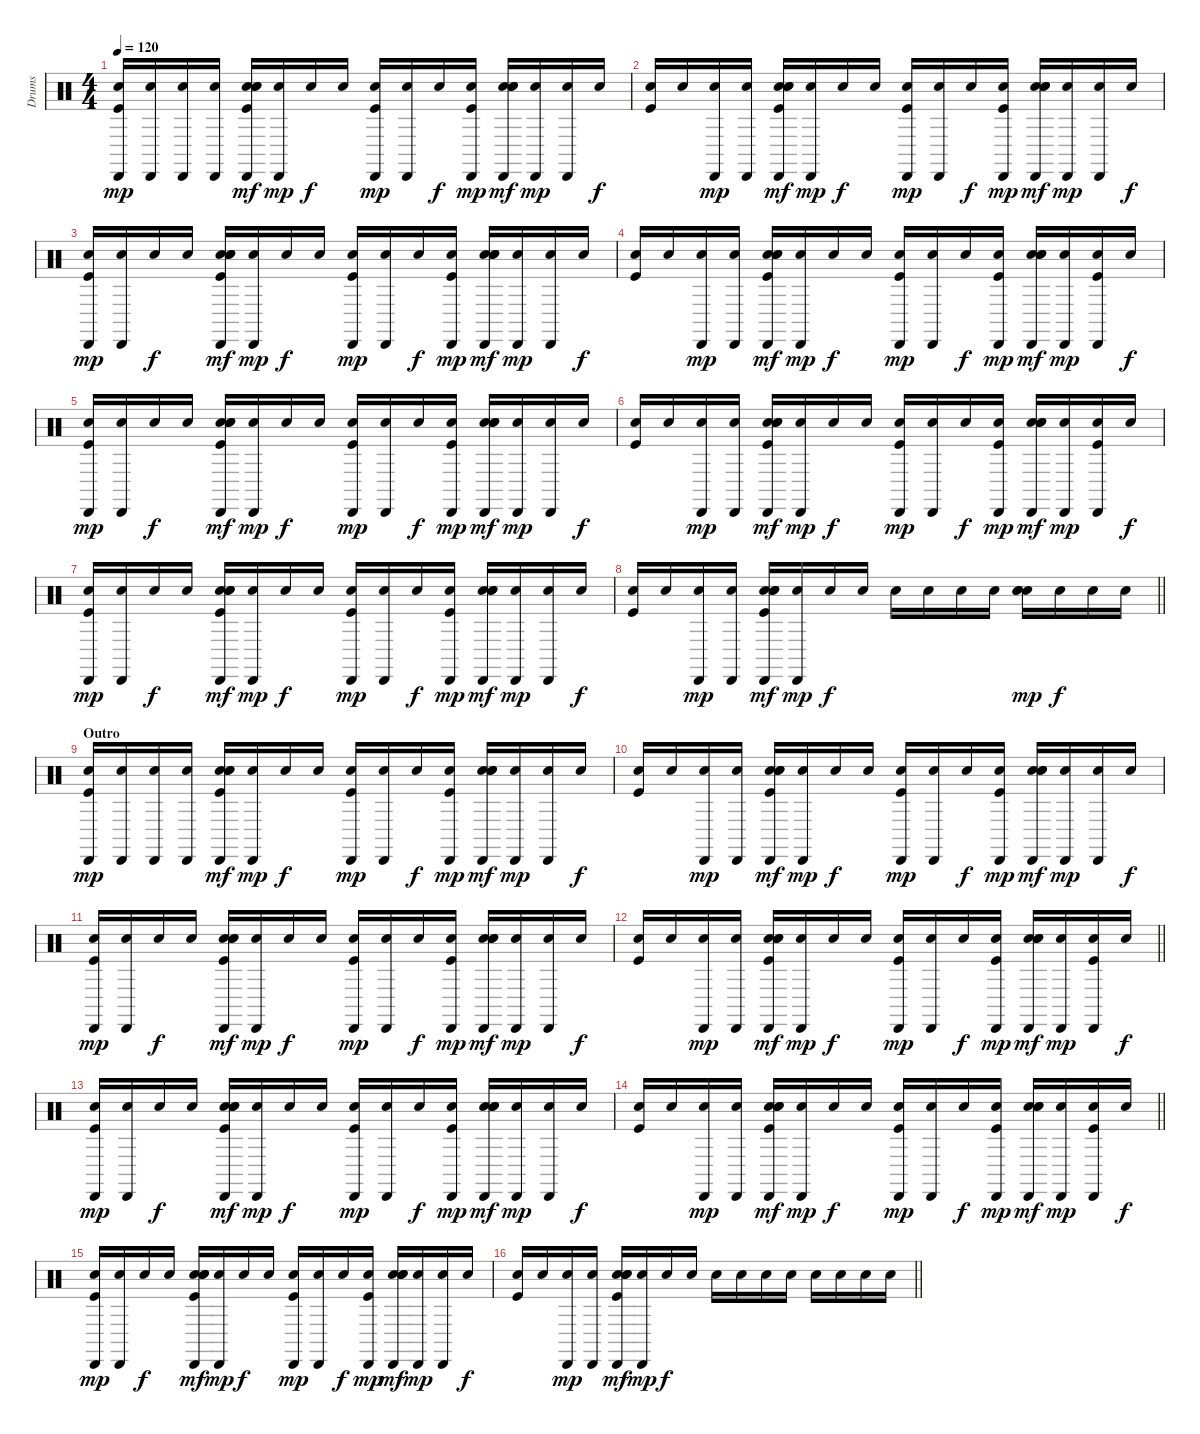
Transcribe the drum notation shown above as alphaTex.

\track ("Drums" "Drums") {instrument percussion}
\staff {score}
\articulation defaults
\ts (4 4)
\tempo 120
\clef neutral
\ks c
("Snare (hit)" "Cabasa (hit)" "Kick (hit)").16{dy mp} ("Snare (hit)" "Cabasa (hit)").16 ("Snare (hit)" "Cabasa (hit)").16 ("Snare (hit)" "Cabasa (hit)").16 ("Snare (hit)" "Cabasa (hit)" "Hand Clap (hit)" "Electric Snare (hit)" "Kick (hit)").16{dy mf} ("Snare (hit)" "Cabasa (hit)").16{dy mp} "Snare (hit)".16{dy f} "Snare (hit)".16 ("Snare (hit)" "Cabasa (hit)" "Kick (hit)").16{dy mp} ("Snare (hit)" "Cabasa (hit)").16 "Snare (hit)".16{dy f} ("Snare (hit)" "Cabasa (hit)" "Kick (hit)").16{dy mp} ("Snare (hit)" "Cabasa (hit)" "Hand Clap (hit)" "Electric Snare (hit)").16{dy mf} ("Snare (hit)" "Cabasa (hit)").16{dy mp} ("Snare (hit)" "Cabasa (hit)").16 "Snare (hit)".16{dy f} |
("Snare (hit)" "Kick (hit)").16 "Snare (hit)".16 ("Snare (hit)" "Cabasa (hit)").16{dy mp} ("Snare (hit)" "Cabasa (hit)").16 ("Snare (hit)" "Cabasa (hit)" "Hand Clap (hit)" "Electric Snare (hit)" "Kick (hit)").16{dy mf} ("Snare (hit)" "Cabasa (hit)").16{dy mp} "Snare (hit)".16{dy f} "Snare (hit)".16 ("Snare (hit)" "Cabasa (hit)" "Kick (hit)").16{dy mp} ("Snare (hit)" "Cabasa (hit)").16 "Snare (hit)".16{dy f} ("Snare (hit)" "Cabasa (hit)" "Kick (hit)").16{dy mp} ("Snare (hit)" "Cabasa (hit)" "Hand Clap (hit)" "Electric Snare (hit)").16{dy mf} ("Snare (hit)" "Cabasa (hit)").16{dy mp} ("Snare (hit)" "Cabasa (hit)").16 "Snare (hit)".16{dy f} |
("Snare (hit)" "Cabasa (hit)" "Kick (hit)").16{dy mp} ("Snare (hit)" "Cabasa (hit)").16 "Snare (hit)".16{dy f} "Snare (hit)".16 ("Snare (hit)" "Cabasa (hit)" "Hand Clap (hit)" "Electric Snare (hit)" "Kick (hit)").16{dy mf} ("Snare (hit)" "Cabasa (hit)").16{dy mp} "Snare (hit)".16{dy f} "Snare (hit)".16 ("Snare (hit)" "Cabasa (hit)" "Kick (hit)").16{dy mp} ("Snare (hit)" "Cabasa (hit)").16 "Snare (hit)".16{dy f} ("Snare (hit)" "Cabasa (hit)" "Kick (hit)").16{dy mp} ("Snare (hit)" "Cabasa (hit)" "Hand Clap (hit)" "Electric Snare (hit)").16{dy mf} ("Snare (hit)" "Cabasa (hit)").16{dy mp} ("Snare (hit)" "Cabasa (hit)").16 "Snare (hit)".16{dy f} |
("Snare (hit)" "Kick (hit)").16 "Snare (hit)".16 ("Snare (hit)" "Cabasa (hit)").16{dy mp} ("Snare (hit)" "Cabasa (hit)").16 ("Snare (hit)" "Cabasa (hit)" "Hand Clap (hit)" "Electric Snare (hit)" "Kick (hit)").16{dy mf} ("Snare (hit)" "Cabasa (hit)").16{dy mp} "Snare (hit)".16{dy f} "Snare (hit)".16 ("Snare (hit)" "Cabasa (hit)" "Kick (hit)").16{dy mp} ("Snare (hit)" "Cabasa (hit)").16 "Snare (hit)".16{dy f} ("Snare (hit)" "Cabasa (hit)" "Kick (hit)").16{dy mp} ("Snare (hit)" "Cabasa (hit)" "Hand Clap (hit)" "Electric Snare (hit)").16{dy mf} ("Snare (hit)" "Cabasa (hit)").16{dy mp} ("Snare (hit)" "Cabasa (hit)" "Kick (hit)").16 "Snare (hit)".16{dy f} |
("Snare (hit)" "Cabasa (hit)" "Kick (hit)").16{dy mp} ("Snare (hit)" "Cabasa (hit)").16 "Snare (hit)".16{dy f} "Snare (hit)".16 ("Snare (hit)" "Cabasa (hit)" "Hand Clap (hit)" "Electric Snare (hit)" "Kick (hit)").16{dy mf} ("Snare (hit)" "Cabasa (hit)").16{dy mp} "Snare (hit)".16{dy f} "Snare (hit)".16 ("Snare (hit)" "Cabasa (hit)" "Kick (hit)").16{dy mp} ("Snare (hit)" "Cabasa (hit)").16 "Snare (hit)".16{dy f} ("Snare (hit)" "Cabasa (hit)" "Kick (hit)").16{dy mp} ("Snare (hit)" "Cabasa (hit)" "Hand Clap (hit)" "Electric Snare (hit)").16{dy mf} ("Snare (hit)" "Cabasa (hit)").16{dy mp} ("Snare (hit)" "Cabasa (hit)").16 "Snare (hit)".16{dy f} |
("Snare (hit)" "Kick (hit)").16 "Snare (hit)".16 ("Snare (hit)" "Cabasa (hit)").16{dy mp} ("Snare (hit)" "Cabasa (hit)").16 ("Snare (hit)" "Cabasa (hit)" "Hand Clap (hit)" "Electric Snare (hit)" "Kick (hit)").16{dy mf} ("Snare (hit)" "Cabasa (hit)").16{dy mp} "Snare (hit)".16{dy f} "Snare (hit)".16 ("Snare (hit)" "Cabasa (hit)" "Kick (hit)").16{dy mp} ("Snare (hit)" "Cabasa (hit)").16 "Snare (hit)".16{dy f} ("Snare (hit)" "Cabasa (hit)" "Kick (hit)").16{dy mp} ("Snare (hit)" "Cabasa (hit)" "Hand Clap (hit)" "Electric Snare (hit)").16{dy mf} ("Snare (hit)" "Cabasa (hit)").16{dy mp} ("Snare (hit)" "Cabasa (hit)" "Kick (hit)").16 "Snare (hit)".16{dy f} |
("Snare (hit)" "Cabasa (hit)" "Kick (hit)").16{dy mp} ("Snare (hit)" "Cabasa (hit)").16 "Snare (hit)".16{dy f} "Snare (hit)".16 ("Snare (hit)" "Cabasa (hit)" "Hand Clap (hit)" "Electric Snare (hit)" "Kick (hit)").16{dy mf} ("Snare (hit)" "Cabasa (hit)").16{dy mp} "Snare (hit)".16{dy f} "Snare (hit)".16 ("Snare (hit)" "Cabasa (hit)" "Kick (hit)").16{dy mp} ("Snare (hit)" "Cabasa (hit)").16 "Snare (hit)".16{dy f} ("Snare (hit)" "Cabasa (hit)" "Kick (hit)").16{dy mp} ("Snare (hit)" "Cabasa (hit)" "Hand Clap (hit)" "Electric Snare (hit)").16{dy mf} ("Snare (hit)" "Cabasa (hit)").16{dy mp} ("Snare (hit)" "Cabasa (hit)").16 "Snare (hit)".16{dy f} |
\barLineRight lightlight
("Snare (hit)" "Kick (hit)").16 "Snare (hit)".16 ("Snare (hit)" "Cabasa (hit)").16{dy mp} ("Snare (hit)" "Cabasa (hit)").16 ("Snare (hit)" "Cabasa (hit)" "Hand Clap (hit)" "Electric Snare (hit)" "Kick (hit)").16{dy mf} ("Snare (hit)" "Cabasa (hit)").16{dy mp} "Snare (hit)".16{dy f} "Snare (hit)".16 "Snare (hit)".16 "Snare (hit)".16 "Snare (hit)".16 "Snare (hit)".16 ("Snare (hit)" "Hand Clap (hit)" "Electric Snare (hit)").16{dy mp} "Snare (hit)".16{dy f} "Snare (hit)".16 "Snare (hit)".16 |
\section ("" "Outro")
("Snare (hit)" "Cabasa (hit)" "Kick (hit)").16{dy mp} ("Snare (hit)" "Cabasa (hit)").16 ("Snare (hit)" "Cabasa (hit)").16 ("Snare (hit)" "Cabasa (hit)").16 ("Snare (hit)" "Cabasa (hit)" "Hand Clap (hit)" "Electric Snare (hit)" "Kick (hit)").16{dy mf} ("Snare (hit)" "Cabasa (hit)").16{dy mp} "Snare (hit)".16{dy f} "Snare (hit)".16 ("Snare (hit)" "Cabasa (hit)" "Kick (hit)").16{dy mp} ("Snare (hit)" "Cabasa (hit)").16 "Snare (hit)".16{dy f} ("Snare (hit)" "Cabasa (hit)" "Kick (hit)").16{dy mp} ("Snare (hit)" "Cabasa (hit)" "Hand Clap (hit)" "Electric Snare (hit)").16{dy mf} ("Snare (hit)" "Cabasa (hit)").16{dy mp} ("Snare (hit)" "Cabasa (hit)").16 "Snare (hit)".16{dy f} |
("Snare (hit)" "Kick (hit)").16 "Snare (hit)".16 ("Snare (hit)" "Cabasa (hit)").16{dy mp} ("Snare (hit)" "Cabasa (hit)").16 ("Snare (hit)" "Cabasa (hit)" "Hand Clap (hit)" "Electric Snare (hit)" "Kick (hit)").16{dy mf} ("Snare (hit)" "Cabasa (hit)").16{dy mp} "Snare (hit)".16{dy f} "Snare (hit)".16 ("Snare (hit)" "Cabasa (hit)" "Kick (hit)").16{dy mp} ("Snare (hit)" "Cabasa (hit)").16 "Snare (hit)".16{dy f} ("Snare (hit)" "Cabasa (hit)" "Kick (hit)").16{dy mp} ("Snare (hit)" "Cabasa (hit)" "Hand Clap (hit)" "Electric Snare (hit)").16{dy mf} ("Snare (hit)" "Cabasa (hit)").16{dy mp} ("Snare (hit)" "Cabasa (hit)").16 "Snare (hit)".16{dy f} |
("Snare (hit)" "Cabasa (hit)" "Kick (hit)").16{dy mp} ("Snare (hit)" "Cabasa (hit)").16 "Snare (hit)".16{dy f} "Snare (hit)".16 ("Snare (hit)" "Cabasa (hit)" "Hand Clap (hit)" "Electric Snare (hit)" "Kick (hit)").16{dy mf} ("Snare (hit)" "Cabasa (hit)").16{dy mp} "Snare (hit)".16{dy f} "Snare (hit)".16 ("Snare (hit)" "Cabasa (hit)" "Kick (hit)").16{dy mp} ("Snare (hit)" "Cabasa (hit)").16 "Snare (hit)".16{dy f} ("Snare (hit)" "Cabasa (hit)" "Kick (hit)").16{dy mp} ("Snare (hit)" "Cabasa (hit)" "Hand Clap (hit)" "Electric Snare (hit)").16{dy mf} ("Snare (hit)" "Cabasa (hit)").16{dy mp} ("Snare (hit)" "Cabasa (hit)").16 "Snare (hit)".16{dy f} |
\barLineRight lightlight
("Snare (hit)" "Kick (hit)").16 "Snare (hit)".16 ("Snare (hit)" "Cabasa (hit)").16{dy mp} ("Snare (hit)" "Cabasa (hit)").16 ("Snare (hit)" "Cabasa (hit)" "Hand Clap (hit)" "Electric Snare (hit)" "Kick (hit)").16{dy mf} ("Snare (hit)" "Cabasa (hit)").16{dy mp} "Snare (hit)".16{dy f} "Snare (hit)".16 ("Snare (hit)" "Cabasa (hit)" "Kick (hit)").16{dy mp} ("Snare (hit)" "Cabasa (hit)").16 "Snare (hit)".16{dy f} ("Snare (hit)" "Cabasa (hit)" "Kick (hit)").16{dy mp} ("Snare (hit)" "Cabasa (hit)" "Hand Clap (hit)" "Electric Snare (hit)").16{dy mf} ("Snare (hit)" "Cabasa (hit)").16{dy mp} ("Snare (hit)" "Cabasa (hit)" "Kick (hit)").16 "Snare (hit)".16{dy f} |
("Snare (hit)" "Cabasa (hit)" "Kick (hit)").16{dy mp} ("Snare (hit)" "Cabasa (hit)").16 "Snare (hit)".16{dy f} "Snare (hit)".16 ("Snare (hit)" "Cabasa (hit)" "Hand Clap (hit)" "Electric Snare (hit)" "Kick (hit)").16{dy mf} ("Snare (hit)" "Cabasa (hit)").16{dy mp} "Snare (hit)".16{dy f} "Snare (hit)".16 ("Snare (hit)" "Cabasa (hit)" "Kick (hit)").16{dy mp} ("Snare (hit)" "Cabasa (hit)").16 "Snare (hit)".16{dy f} ("Snare (hit)" "Cabasa (hit)" "Kick (hit)").16{dy mp} ("Snare (hit)" "Cabasa (hit)" "Hand Clap (hit)" "Electric Snare (hit)").16{dy mf} ("Snare (hit)" "Cabasa (hit)").16{dy mp} ("Snare (hit)" "Cabasa (hit)").16 "Snare (hit)".16{dy f} |
\barLineRight lightlight
("Snare (hit)" "Kick (hit)").16 "Snare (hit)".16 ("Snare (hit)" "Cabasa (hit)").16{dy mp} ("Snare (hit)" "Cabasa (hit)").16 ("Snare (hit)" "Cabasa (hit)" "Hand Clap (hit)" "Electric Snare (hit)" "Kick (hit)").16{dy mf} ("Snare (hit)" "Cabasa (hit)").16{dy mp} "Snare (hit)".16{dy f} "Snare (hit)".16 ("Snare (hit)" "Cabasa (hit)" "Kick (hit)").16{dy mp} ("Snare (hit)" "Cabasa (hit)").16 "Snare (hit)".16{dy f} ("Snare (hit)" "Cabasa (hit)" "Kick (hit)").16{dy mp} ("Snare (hit)" "Cabasa (hit)" "Hand Clap (hit)" "Electric Snare (hit)").16{dy mf} ("Snare (hit)" "Cabasa (hit)").16{dy mp} ("Snare (hit)" "Cabasa (hit)" "Kick (hit)").16 "Snare (hit)".16{dy f} |
("Snare (hit)" "Cabasa (hit)" "Kick (hit)").16{dy mp} ("Snare (hit)" "Cabasa (hit)").16 "Snare (hit)".16{dy f} "Snare (hit)".16 ("Snare (hit)" "Cabasa (hit)" "Hand Clap (hit)" "Electric Snare (hit)" "Kick (hit)").16{dy mf} ("Snare (hit)" "Cabasa (hit)").16{dy mp} "Snare (hit)".16{dy f} "Snare (hit)".16 ("Snare (hit)" "Cabasa (hit)" "Kick (hit)").16{dy mp} ("Snare (hit)" "Cabasa (hit)").16 "Snare (hit)".16{dy f} ("Snare (hit)" "Cabasa (hit)" "Kick (hit)").16{dy mp} ("Snare (hit)" "Cabasa (hit)" "Hand Clap (hit)" "Electric Snare (hit)").16{dy mf} ("Snare (hit)" "Cabasa (hit)").16{dy mp} ("Snare (hit)" "Cabasa (hit)").16 "Snare (hit)".16{dy f} |
\barLineRight lightlight
("Snare (hit)" "Kick (hit)").16 "Snare (hit)".16 ("Snare (hit)" "Cabasa (hit)").16{dy mp} ("Snare (hit)" "Cabasa (hit)").16 ("Snare (hit)" "Cabasa (hit)" "Hand Clap (hit)" "Electric Snare (hit)" "Kick (hit)").16{dy mf} ("Snare (hit)" "Cabasa (hit)").16{dy mp} "Snare (hit)".16{dy f} "Snare (hit)".16 "Snare (hit)".16 "Snare (hit)".16 "Snare (hit)".16 "Snare (hit)".16 "Snare (hit)".16 "Snare (hit)".16 "Snare (hit)".16 "Snare (hit)".16
